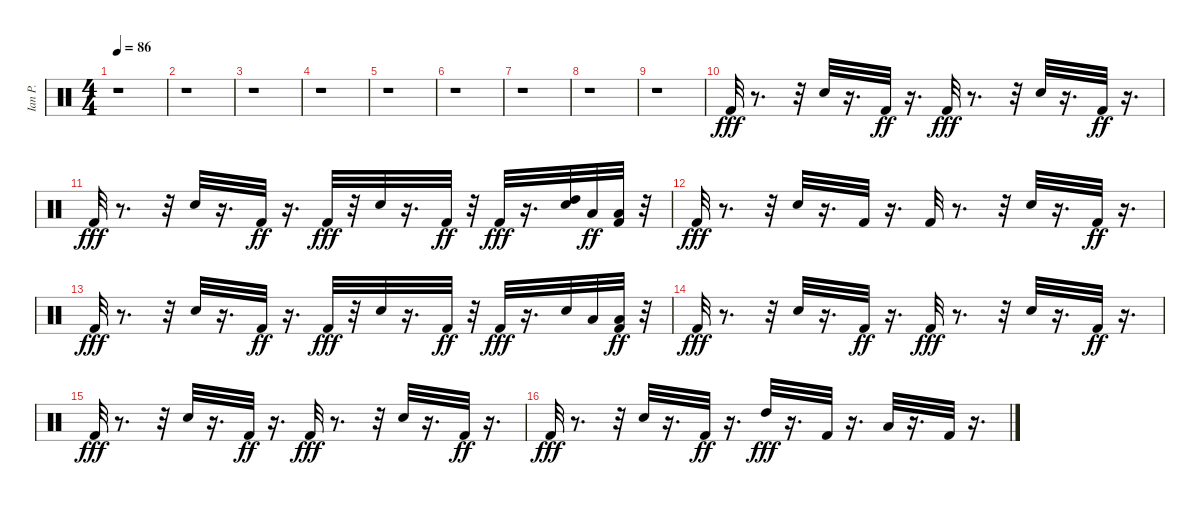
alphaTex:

\track ("Ian P." "Ian P.") {instrument percussion}
\staff {score}
\articulation defaults
\ts (4 4)
\tempo 86
\clef neutral
\ks c
r.1{dy fff} |
r.1 |
r.1 |
r.1 |
r.1 |
r.1 |
r.1 |
r.1 |
r.1 |
"Kick (hit) 2".32{volume 16 balance 8} r.8{d} r.32 "Snare (hit) 2".32 r.16{d} "Kick (hit) 2".32{dy ff} r.16{d} "Kick (hit) 2".32{dy fff} r.8{d} r.32 "Snare (hit) 2".32 r.16{d} "Kick (hit) 2".32{dy ff} r.16{d} |
"Kick (hit) 2".32{dy fff} r.8{d} r.32 "Snare (hit) 2".32 r.16{d} "Kick (hit) 2".32{dy ff} r.16{d} "Kick (hit) 2".32{dy fff} r.32 "Snare (hit) 2".32 r.16{d} "Kick (hit) 2".32{dy ff} r.32 "Kick (hit) 2".32{dy fff} r.16{d} ("Snare (hit) 2" "High Tom (hit)").32 "Low Tom (hit)".32{dy ff} ("Low Floor Tom (hit)" "Kick (hit) 2").32 r.32 |
"Kick (hit) 2".32{dy fff} r.8{d} r.32 "Snare (hit) 2".32 r.16{d} "Kick (hit) 2".32 r.16{d} "Kick (hit) 2".32 r.8{d} r.32 "Snare (hit) 2".32 r.16{d} "Kick (hit) 2".32{dy ff} r.16{d} |
"Kick (hit) 2".32{dy fff} r.8{d} r.32 "Snare (hit) 2".32 r.16{d} "Kick (hit) 2".32{dy ff} r.16{d} "Kick (hit) 2".32{dy fff} r.32 "Snare (hit) 2".32 r.16{d} "Kick (hit) 2".32{dy ff} r.32 "Kick (hit) 2".32{dy fff} r.16{d} "Snare (hit) 2".32 "Low Tom (hit)".32 ("Low Floor Tom (hit)" "Kick (hit) 2").32{dy ff} r.32 |
"Kick (hit) 2".32{dy fff} r.8{d} r.32 "Snare (hit) 2".32 r.16{d} "Kick (hit) 2".32{dy ff} r.16{d} "Kick (hit) 2".32{dy fff} r.8{d} r.32 "Snare (hit) 2".32 r.16{d} "Kick (hit) 2".32{dy ff} r.16{d} |
"Kick (hit) 2".32{dy fff} r.8{d} r.32 "Snare (hit) 2".32 r.16{d} "Kick (hit) 2".32{dy ff} r.16{d} "Kick (hit) 2".32{dy fff} r.8{d} r.32 "Snare (hit) 2".32 r.16{d} "Kick (hit) 2".32{dy ff} r.16{d} |
"Kick (hit) 2".32{dy fff} r.8{d} r.32 "Snare (hit) 2".32 r.16{d} "Kick (hit) 2".32{dy ff} r.16{d} "High Tom (hit)".32{dy fff} r.16{d} "Kick (hit) 2".32 r.16{d} "Low Tom (hit)".32 r.16{d} "Kick (hit) 2".32 r.16{d}
